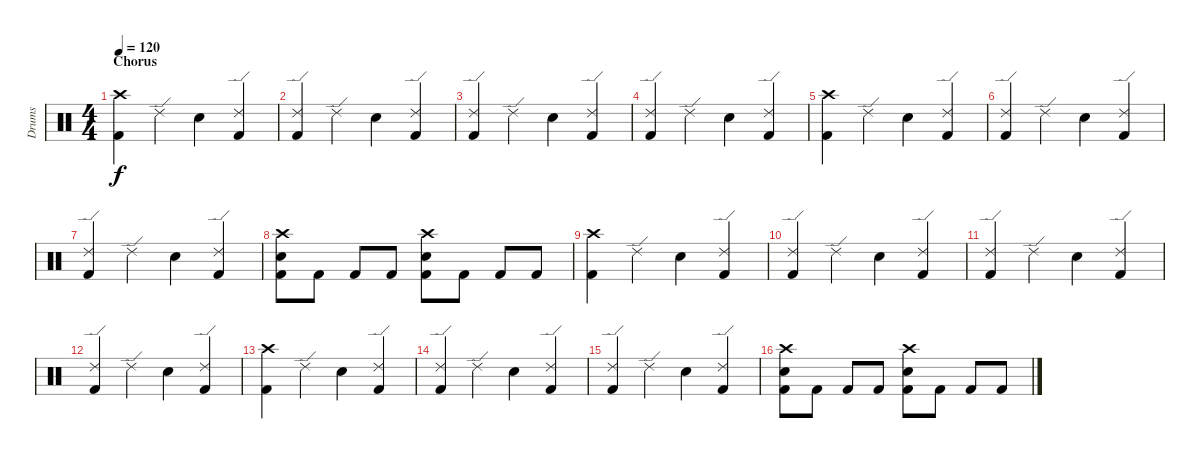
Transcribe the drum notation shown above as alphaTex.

\track ("Drums" "Drums") {instrument percussion}
\staff {score}
\articulation defaults
\ts (4 4)
\section ("" "Chorus")
\tempo 120
\clef neutral
\ks c
("Crash high (hit)" "Kick (hit) 2").4{dy f} "Ride (edge) 2".4 "Snare (hit) 2".4 ("Ride (edge) 2" "Kick (hit) 2").4 |
("Ride (edge) 2" "Kick (hit) 2").4 "Ride (edge) 2".4 "Snare (hit) 2".4 ("Ride (edge) 2" "Kick (hit) 2").4 |
("Ride (edge) 2" "Kick (hit) 2").4 "Ride (edge) 2".4 "Snare (hit) 2".4 ("Ride (edge) 2" "Kick (hit) 2").4 |
("Ride (edge) 2" "Kick (hit) 2").4 "Ride (edge) 2".4 "Snare (hit) 2".4 ("Ride (edge) 2" "Kick (hit) 2").4 |
("Crash high (hit)" "Kick (hit) 2").4 "Ride (edge) 2".4 "Snare (hit) 2".4 ("Ride (edge) 2" "Kick (hit) 2").4 |
("Ride (edge) 2" "Kick (hit) 2").4 "Ride (edge) 2".4 "Snare (hit) 2".4 ("Ride (edge) 2" "Kick (hit) 2").4 |
("Ride (edge) 2" "Kick (hit) 2").4 "Ride (edge) 2".4 "Snare (hit) 2".4 ("Ride (edge) 2" "Kick (hit) 2").4 |
("Crash high (hit)" "Snare (hit) 2" "Kick (hit) 2").8 "Kick (hit) 2".8 "Kick (hit) 2".8 "Kick (hit) 2".8 ("Crash high (hit)" "Snare (hit) 2" "Kick (hit) 2").8 "Kick (hit) 2".8 "Kick (hit) 2".8 "Kick (hit) 2".8 |
("Crash high (hit)" "Kick (hit) 2").4 "Ride (edge) 2".4 "Snare (hit) 2".4 ("Ride (edge) 2" "Kick (hit) 2").4 |
("Ride (edge) 2" "Kick (hit) 2").4 "Ride (edge) 2".4 "Snare (hit) 2".4 ("Ride (edge) 2" "Kick (hit) 2").4 |
("Ride (edge) 2" "Kick (hit) 2").4 "Ride (edge) 2".4 "Snare (hit) 2".4 ("Ride (edge) 2" "Kick (hit) 2").4 |
("Ride (edge) 2" "Kick (hit) 2").4 "Ride (edge) 2".4 "Snare (hit) 2".4 ("Ride (edge) 2" "Kick (hit) 2").4 |
("Crash high (hit)" "Kick (hit) 2").4 "Ride (edge) 2".4 "Snare (hit) 2".4 ("Ride (edge) 2" "Kick (hit) 2").4 |
("Ride (edge) 2" "Kick (hit) 2").4 "Ride (edge) 2".4 "Snare (hit) 2".4 ("Ride (edge) 2" "Kick (hit) 2").4 |
("Ride (edge) 2" "Kick (hit) 2").4 "Ride (edge) 2".4 "Snare (hit) 2".4 ("Ride (edge) 2" "Kick (hit) 2").4 |
("Crash high (hit)" "Snare (hit) 2" "Kick (hit) 2").8 "Kick (hit) 2".8 "Kick (hit) 2".8 "Kick (hit) 2".8 ("Crash high (hit)" "Snare (hit) 2" "Kick (hit) 2").8 "Kick (hit) 2".8 "Kick (hit) 2".8 "Kick (hit) 2".8
